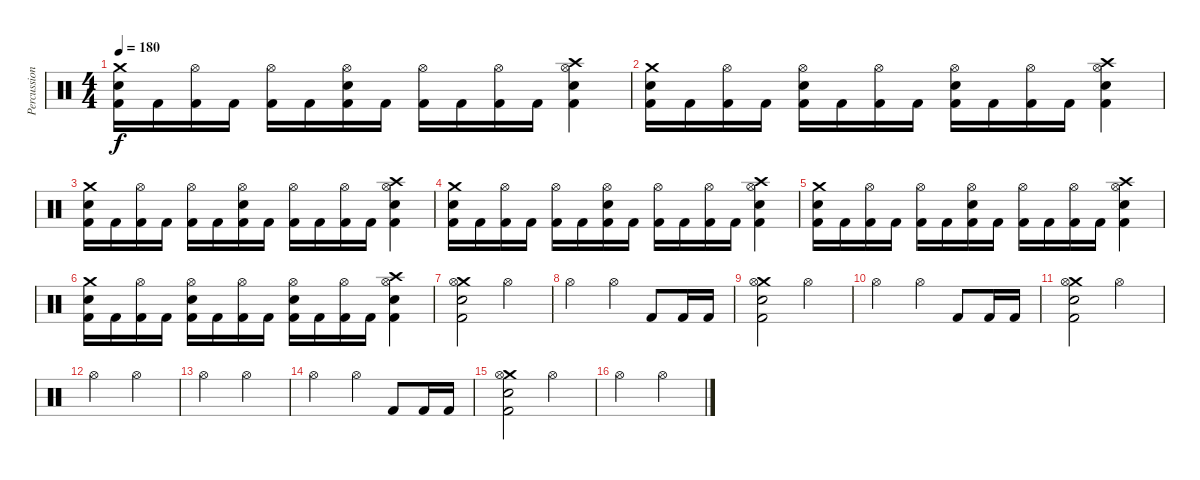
\track ("Percussion" "Percussion") {instrument percussion}
\staff {score}
\articulation defaults
\ts (4 4)
\tempo 180
\clef neutral
\ks c
("Crash medium (hit)" "Electric Snare (hit)" "Kick (hit) 2").16{dy f} "Kick (hit) 2".16 ("Hi-Hat (open)" "Kick (hit) 2").16 "Kick (hit) 2".16 ("Hi-Hat (open)" "Kick (hit) 2").16 "Kick (hit) 2".16 ("Hi-Hat (open)" "Electric Snare (hit)" "Kick (hit) 2").16 "Kick (hit) 2".16 ("Hi-Hat (open)" "Kick (hit) 2").16 "Kick (hit) 2".16 ("Hi-Hat (open)" "Kick (hit) 2").16 "Kick (hit) 2".16 ("Crash high (hit)" "Hi-Hat (open)" "Electric Snare (hit)" "Kick (hit) 2").4 |
("Crash medium (hit)" "Electric Snare (hit)" "Kick (hit) 2").16 "Kick (hit) 2".16 ("Hi-Hat (open)" "Kick (hit) 2").16 "Kick (hit) 2".16 ("Hi-Hat (open)" "Electric Snare (hit)" "Kick (hit) 2").16 "Kick (hit) 2".16 ("Hi-Hat (open)" "Kick (hit) 2").16 "Kick (hit) 2".16 ("Hi-Hat (open)" "Electric Snare (hit)" "Kick (hit) 2").16 "Kick (hit) 2".16 ("Hi-Hat (open)" "Kick (hit) 2").16 "Kick (hit) 2".16 ("Crash high (hit)" "Hi-Hat (open)" "Electric Snare (hit)" "Kick (hit) 2").4 |
("Crash medium (hit)" "Electric Snare (hit)" "Kick (hit) 2").16 "Kick (hit) 2".16 ("Hi-Hat (open)" "Kick (hit) 2").16 "Kick (hit) 2".16 ("Hi-Hat (open)" "Kick (hit) 2").16 "Kick (hit) 2".16 ("Hi-Hat (open)" "Electric Snare (hit)" "Kick (hit) 2").16 "Kick (hit) 2".16 ("Hi-Hat (open)" "Kick (hit) 2").16 "Kick (hit) 2".16 ("Hi-Hat (open)" "Kick (hit) 2").16 "Kick (hit) 2".16 ("Crash high (hit)" "Hi-Hat (open)" "Electric Snare (hit)" "Kick (hit) 2").4 |
("Crash medium (hit)" "Electric Snare (hit)" "Kick (hit) 2").16 "Kick (hit) 2".16 ("Hi-Hat (open)" "Kick (hit) 2").16 "Kick (hit) 2".16 ("Hi-Hat (open)" "Kick (hit) 2").16 "Kick (hit) 2".16 ("Hi-Hat (open)" "Electric Snare (hit)" "Kick (hit) 2").16 "Kick (hit) 2".16 ("Hi-Hat (open)" "Kick (hit) 2").16 "Kick (hit) 2".16 ("Hi-Hat (open)" "Kick (hit) 2").16 "Kick (hit) 2".16 ("Crash high (hit)" "Hi-Hat (open)" "Electric Snare (hit)" "Kick (hit) 2").4 |
("Crash medium (hit)" "Electric Snare (hit)" "Kick (hit) 2").16 "Kick (hit) 2".16 ("Hi-Hat (open)" "Kick (hit) 2").16 "Kick (hit) 2".16 ("Hi-Hat (open)" "Kick (hit) 2").16 "Kick (hit) 2".16 ("Hi-Hat (open)" "Electric Snare (hit)" "Kick (hit) 2").16 "Kick (hit) 2".16 ("Hi-Hat (open)" "Kick (hit) 2").16 "Kick (hit) 2".16 ("Hi-Hat (open)" "Kick (hit) 2").16 "Kick (hit) 2".16 ("Crash high (hit)" "Hi-Hat (open)" "Electric Snare (hit)" "Kick (hit) 2").4 |
("Crash medium (hit)" "Electric Snare (hit)" "Kick (hit) 2").16 "Kick (hit) 2".16 ("Hi-Hat (open)" "Kick (hit) 2").16 "Kick (hit) 2".16 ("Hi-Hat (open)" "Electric Snare (hit)" "Kick (hit) 2").16 "Kick (hit) 2".16 ("Hi-Hat (open)" "Kick (hit) 2").16 "Kick (hit) 2".16 ("Hi-Hat (open)" "Electric Snare (hit)" "Kick (hit) 2").16 "Kick (hit) 2".16 ("Hi-Hat (open)" "Kick (hit) 2").16 "Kick (hit) 2".16 ("Crash high (hit)" "Hi-Hat (open)" "Electric Snare (hit)" "Kick (hit) 2").4 |
("Crash medium (hit)" "Hi-Hat (open)" "Electric Snare (hit)" "Kick (hit) 2").2 "Hi-Hat (open)".2 |
"Hi-Hat (open)".2 "Hi-Hat (open)".4 "Kick (hit) 2".8 "Kick (hit) 2".16 "Kick (hit) 2".16 |
("Crash medium (hit)" "Hi-Hat (open)" "Electric Snare (hit)" "Kick (hit) 2").2 "Hi-Hat (open)".2 |
"Hi-Hat (open)".2 "Hi-Hat (open)".4 "Kick (hit) 2".8 "Kick (hit) 2".16 "Kick (hit) 2".16 |
("Crash medium (hit)" "Hi-Hat (open)" "Electric Snare (hit)" "Kick (hit) 2").2 "Hi-Hat (open)".2 |
"Hi-Hat (open)".2 "Hi-Hat (open)".2 |
"Hi-Hat (open)".2 "Hi-Hat (open)".2 |
"Hi-Hat (open)".2 "Hi-Hat (open)".4 "Kick (hit) 2".8 "Kick (hit) 2".16 "Kick (hit) 2".16 |
("Crash medium (hit)" "Hi-Hat (open)" "Electric Snare (hit)" "Kick (hit) 2").2 "Hi-Hat (open)".2 |
"Hi-Hat (open)".2 "Hi-Hat (open)".2
